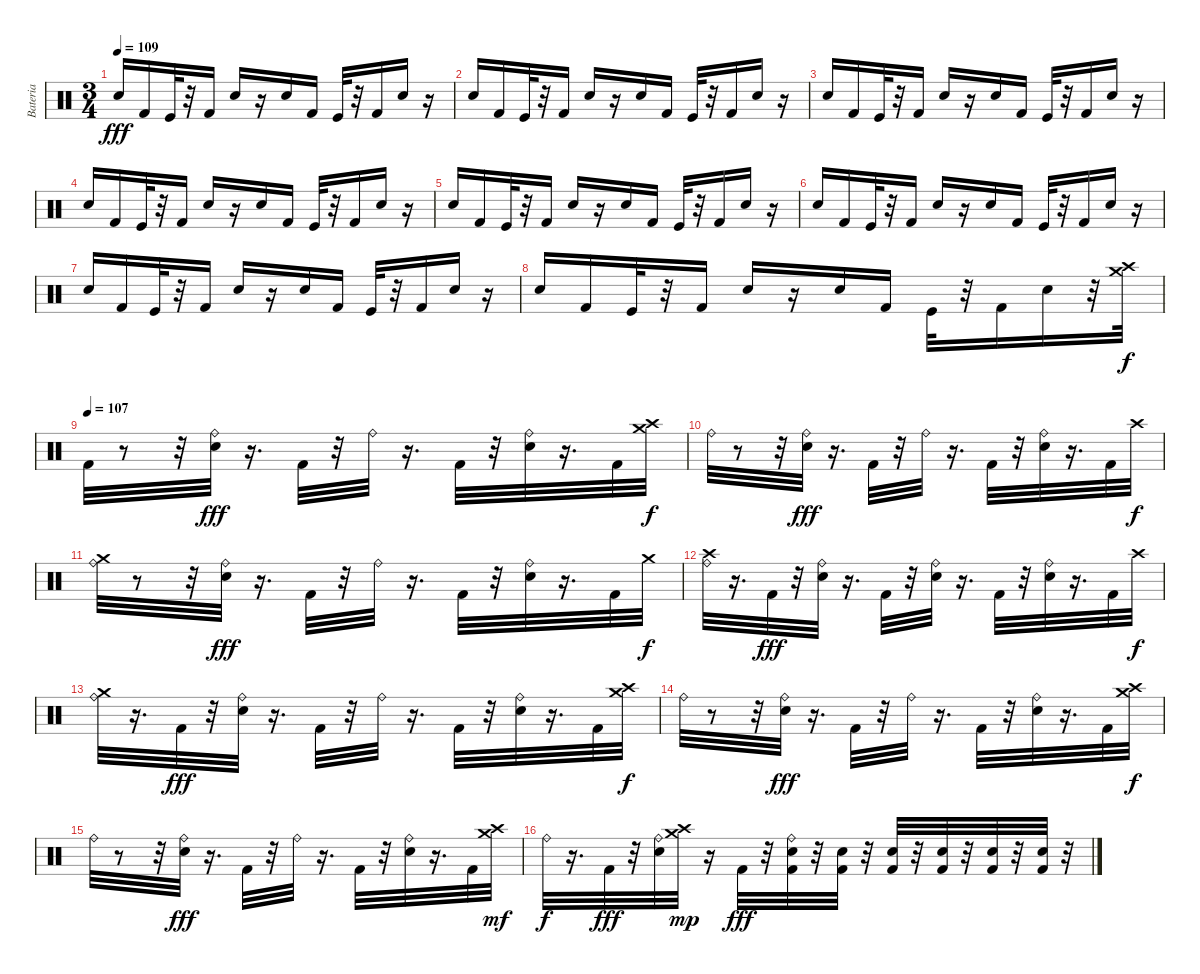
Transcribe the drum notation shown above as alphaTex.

\track ("Bateria" "Bateria") {instrument percussion}
\staff {score}
\articulation defaults
\ts (3 4)
\tempo 109
\clef neutral
\ks c "Electric Snare (hit)".16{dy fff} "Kick (hit) 2".16 "Kick (hit)".32
r.32 "Kick (hit) 2".16 "Electric Snare (hit)".16 r.16 "Electric Snare (hit)".16 "Kick (hit) 2".16 "Kick (hit)".32 r.32 "Kick (hit) 2".16 "Electric Snare (hit)".16 r.16 |
"Electric Snare (hit)".16 "Kick (hit) 2".16 "Kick (hit)".32 r.32 "Kick (hit) 2".16 "Electric Snare (hit)".16 r.16 "Electric Snare (hit)".16 "Kick (hit) 2".16 "Kick (hit)".32 r.32 "Kick (hit) 2".16 "Electric Snare (hit)".16 r.16 |
"Electric Snare (hit)".16 "Kick (hit) 2".16 "Kick (hit)".32 r.32 "Kick (hit) 2".16 "Electric Snare (hit)".16 r.16 "Electric Snare (hit)".16 "Kick (hit) 2".16 "Kick (hit)".32 r.32 "Kick (hit) 2".16 "Electric Snare (hit)".16 r.16 |
"Electric Snare (hit)".16 "Kick (hit) 2".16 "Kick (hit)".32 r.32 "Kick (hit) 2".16 "Electric Snare (hit)".16 r.16 "Electric Snare (hit)".16 "Kick (hit) 2".16 "Kick (hit)".32 r.32 "Kick (hit) 2".16 "Electric Snare (hit)".16 r.16 |
"Electric Snare (hit)".16 "Kick (hit) 2".16 "Kick (hit)".32 r.32 "Kick (hit) 2".16 "Electric Snare (hit)".16 r.16 "Electric Snare (hit)".16 "Kick (hit) 2".16 "Kick (hit)".32 r.32 "Kick (hit) 2".16 "Electric Snare (hit)".16 r.16 |
"Electric Snare (hit)".16 "Kick (hit) 2".16 "Kick (hit)".32 r.32 "Kick (hit) 2".16 "Electric Snare (hit)".16 r.16 "Electric Snare (hit)".16 "Kick (hit) 2".16 "Kick (hit)".32 r.32 "Kick (hit) 2".16 "Electric Snare (hit)".16 r.16 |
"Electric Snare (hit)".16 "Kick (hit) 2".16 "Kick (hit)".32 r.32 "Kick (hit) 2".16 "Electric Snare (hit)".16 r.16 "Electric Snare (hit)".16 "Kick (hit) 2".16 "Kick (hit)".32 r.32 "Kick (hit) 2".16 "Electric Snare (hit)".16 r.16 |
"Electric Snare (hit)".16 "Kick (hit) 2".16 "Kick (hit)".32 r.32 "Kick (hit) 2".16 "Electric Snare (hit)".16 r.16 "Electric Snare (hit)".16 "Kick (hit) 2".16 "Kick (hit)".32 r.32 "Kick (hit) 2".16 "Electric Snare (hit)".16 r.32 ("Crash high (hit)" "Crash medium (hit)").32{dy f} |
\tempo (107)
"Kick (hit) 2".32 r.8 r.32 ("Ride (bell)" "Electric Snare (hit)").32{dy fff} r.16{d} "Kick (hit) 2".32 r.32 "Ride (bell)".32 r.16{d} "Kick (hit) 2".32 r.32 ("Ride (bell)" "Electric Snare (hit)").32 r.16{d} "Kick (hit) 2".32 ("Crash medium (hit)" "Crash high (hit)").32{dy f} |
"Ride (bell)".32 r.8 r.32 ("Ride (bell)" "Electric Snare (hit)").32{dy fff} r.16{d} "Kick (hit) 2".32 r.32 "Ride (bell)".32 r.16{d} "Kick (hit) 2".32 r.32 ("Ride (bell)" "Electric Snare (hit)").32 r.16{d} "Kick (hit) 2".32 "Crash high (hit)".32{dy f} |
("Crash medium (hit)" "Ride (bell)").32 r.8 r.32 ("Ride (bell)" "Electric Snare (hit)").32{dy fff} r.16{d} "Kick (hit) 2".32 r.32 "Ride (bell)".32 r.16{d} "Kick (hit) 2".32 r.32 ("Ride (bell)" "Electric Snare (hit)").32 r.16{d} "Kick (hit) 2".32 "Crash medium (hit)".32{dy f} |
("Crash high (hit)" "Ride (bell)").32 r.16{d} "Kick (hit) 2".32{dy fff} r.32 ("Electric Snare (hit)" "Ride (bell)").32 r.16{d} "Kick (hit) 2".32 r.32 ("Electric Snare (hit)" "Ride (bell)").32 r.16{d} "Kick (hit) 2".32 r.32 ("Electric Snare (hit)" "Ride (bell)").32 r.16{d} "Kick (hit) 2".32 "Crash high (hit)".32{dy f} |
("Crash medium (hit)" "Ride (bell)").32 r.16{d} "Kick (hit) 2".32{dy fff} r.32 ("Electric Snare (hit)" "Ride (bell)").32 r.16{d} "Kick (hit) 2".32 r.32 "Ride (bell)".32 r.16{d} "Kick (hit) 2".32 r.32 ("Ride (bell)" "Electric Snare (hit)").32 r.16{d} "Kick (hit) 2".32 ("Crash medium (hit)" "Crash high (hit)").32{dy f} |
"Ride (bell)".32 r.8 r.32 ("Ride (bell)" "Electric Snare (hit)").32{dy fff} r.16{d} "Kick (hit) 2".32 r.32 "Ride (bell)".32 r.16{d} "Kick (hit) 2".32 r.32 ("Ride (bell)" "Electric Snare (hit)").32 r.16{d} "Kick (hit) 2".32 ("Crash high (hit)" "Crash medium (hit)").32{dy f} |
"Ride (bell)".32 r.8 r.32 ("Ride (bell)" "Electric Snare (hit)").32{dy fff} r.16{d} "Kick (hit) 2".32 r.32 "Ride (bell)".32 r.16{d} "Kick (hit) 2".32 r.32 ("Ride (bell)" "Electric Snare (hit)").32 r.16{d} "Kick (hit) 2".32 ("Crash medium (hit)" "Crash high (hit)").32{dy mf} |
"Ride (bell)".32{dy f} r.16{d} "Kick (hit) 2".32{dy fff} r.32 ("Electric Snare (hit)" "Ride (bell)").32 ("Crash high (hit)" "Crash medium (hit)").32{dy mp} r.16 "Kick (hit) 2".32{dy fff} r.32 ("Kick (hit) 2" "Electric Snare (hit)" "Ride (bell)").32 r.32 ("Kick (hit) 2" "Electric Snare (hit)").32 r.32 ("Kick (hit) 2" "Electric Snare (hit)").32 r.32 ("Kick (hit) 2" "Electric Snare (hit)").32 r.32 ("Kick (hit) 2" "Electric Snare (hit)").32 r.32 ("Kick (hit) 2" "Electric Snare (hit)").32 r.32
